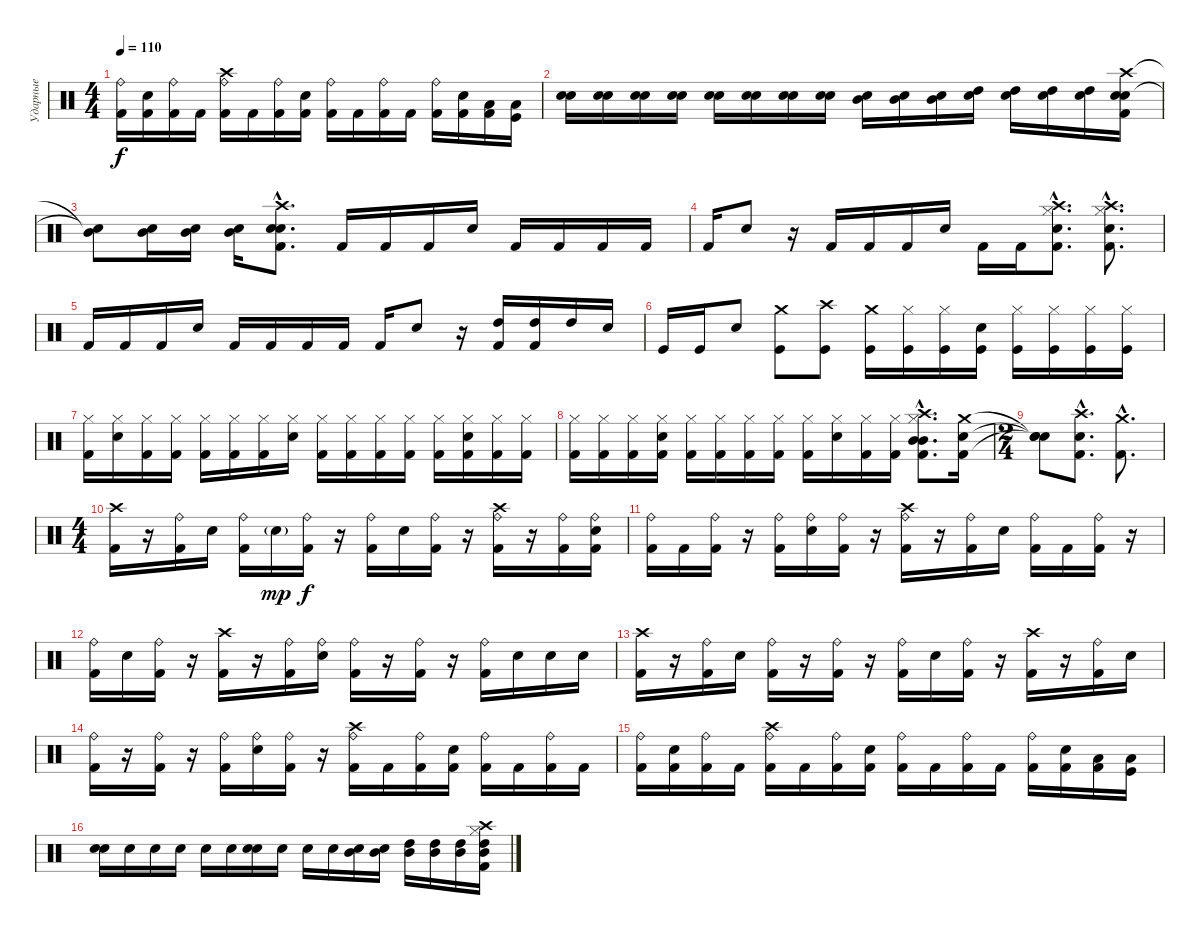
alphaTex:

\track ("Ударные" "Ударные") {instrument percussion}
\staff {score}
\articulation defaults
\ts (4 4)
\tempo 110
\clef neutral
\ks c
("Ride (bell)" "Kick (hit) 2").16{dy f} ("Electric Snare (hit)" "Kick (hit) 2").16 ("Ride (bell)" "Kick (hit) 2").16 "Kick (hit) 2".16 ("Crash high (hit)" "Ride (bell)" "Kick (hit) 2").16 "Kick (hit) 2".16 ("Ride (bell)" "Kick (hit) 2").16 ("Electric Snare (hit)" "Kick (hit) 2").16 ("Ride (bell)" "Kick (hit) 2").16 "Kick (hit) 2".16 ("Ride (bell)" "Kick (hit) 2").16 "Kick (hit) 2".16 ("Ride (bell)" "Kick (hit) 2").16 ("Electric Snare (hit)" "Kick (hit) 2").16 ("Low Tom (hit)" "Kick (hit) 2").16 ("Low Tom (hit)" "Kick (hit)").16 |
("Electric Snare (hit)" "Electric Snare (hit)").16 ("Electric Snare (hit)" "Electric Snare (hit)").16 ("Electric Snare (hit)" "Electric Snare (hit)").16 ("Electric Snare (hit)" "Electric Snare (hit)").16 ("Electric Snare (hit)" "Electric Snare (hit)").16 ("Electric Snare (hit)" "Electric Snare (hit)").16 ("Electric Snare (hit)" "Electric Snare (hit)").16 ("Electric Snare (hit)" "Electric Snare (hit)").16 ("Mid Tom (hit)" "Electric Snare (hit)").16 ("Mid Tom (hit)" "Electric Snare (hit)").16 ("Mid Tom (hit)" "Electric Snare (hit)").16 ("High Tom (hit)" "Electric Snare (hit)").16 ("High Tom (hit)" "Electric Snare (hit)").16 ("High Tom (hit)" "Electric Snare (hit)").16 ("High Tom (hit)" "Electric Snare (hit)").16 ("Crash high (hit)" "Electric Snare (hit)" "Electric Snare (hit)" "Kick (hit) 2").16 |
("Mid Tom (hit)"{t} "Electric Snare (hit)"{t}).8 ("Mid Tom (hit)" "Electric Snare (hit)").16 ("Mid Tom (hit)" "Electric Snare (hit)").16 ("Mid Tom (hit)" "Electric Snare (hit)").16 ("Crash high (hit)"{hac} "Electric Snare (hit)"{hac} "Electric Snare (hit)"{hac} "Kick (hit) 2"{hac}).8{d} "Kick (hit) 2".16 "Kick (hit) 2".16 "Kick (hit) 2".16 "Electric Snare (hit)".16 "Kick (hit) 2".16 "Kick (hit) 2".16 "Kick (hit) 2".16 "Kick (hit) 2".16 |
"Kick (hit) 2".16 "Electric Snare (hit)".8 r.16 "Kick (hit) 2".16 "Kick (hit) 2".16 "Kick (hit) 2".16 "Electric Snare (hit)".16 "Kick (hit) 2".16 "Kick (hit) 2".16 ("Crash high (hit)"{hac} "Hi-Hat (closed)"{hac} "Electric Snare (hit)"{hac} "Kick (hit) 2"{hac}).8{d} ("Crash high (hit)"{hac} "Hi-Hat (closed)"{hac} "Electric Snare (hit)"{hac} "Kick (hit) 2"{hac}).8{d} |
"Kick (hit) 2".16 "Kick (hit) 2".16 "Kick (hit) 2".16 "Electric Snare (hit)".16 "Kick (hit) 2".16 "Kick (hit) 2".16 "Kick (hit) 2".16 "Kick (hit) 2".16 "Kick (hit) 2".16 "Electric Snare (hit)".8 r.16 ("High Tom (hit)" "Kick (hit) 2").16 ("High Tom (hit)" "Kick (hit) 2").16 "High Tom (hit)".16 "Electric Snare (hit)".16 |
"Kick (hit)".16 "Kick (hit)".16 "Electric Snare (hit)".8 ("Crash medium (hit)" "Kick (hit)").8 ("Crash high (hit)" "Kick (hit)").8 ("Crash medium (hit)" "Kick (hit)").16 ("Hi-Hat (closed)" "Kick (hit)").16 ("Hi-Hat (closed)" "Kick (hit)").16 ("Electric Snare (hit)" "Kick (hit)").16 ("Hi-Hat (closed)" "Kick (hit)").16 ("Hi-Hat (closed)" "Kick (hit)").16 ("Hi-Hat (closed)" "Kick (hit)").16 ("Hi-Hat (closed)" "Kick (hit)").16 |
("Hi-Hat (closed)" "Kick (hit) 2").16 ("Hi-Hat (closed)" "Electric Snare (hit)").16 ("Hi-Hat (closed)" "Kick (hit) 2").16 ("Hi-Hat (closed)" "Kick (hit) 2").16 ("Hi-Hat (closed)" "Kick (hit) 2").16 ("Hi-Hat (closed)" "Kick (hit) 2").16 ("Hi-Hat (closed)" "Kick (hit) 2").16 ("Hi-Hat (closed)" "Electric Snare (hit)").16 ("Hi-Hat (closed)" "Kick (hit) 2").16 ("Hi-Hat (closed)" "Kick (hit) 2").16 ("Hi-Hat (closed)" "Kick (hit) 2").16 ("Hi-Hat (closed)" "Kick (hit) 2").16 ("Hi-Hat (closed)" "Kick (hit) 2").16 ("Hi-Hat (closed)" "Electric Snare (hit)" "Kick (hit) 2").16 ("Hi-Hat (closed)" "Kick (hit) 2").16 ("Hi-Hat (closed)" "Kick (hit) 2").16 |
("Hi-Hat (closed)" "Kick (hit) 2").16 ("Hi-Hat (closed)" "Kick (hit) 2").16 ("Hi-Hat (closed)" "Kick (hit) 2").16 ("Hi-Hat (closed)" "Electric Snare (hit)" "Kick (hit) 2").16 ("Hi-Hat (closed)" "Kick (hit) 2").16 ("Hi-Hat (closed)" "Kick (hit) 2").16 ("Hi-Hat (closed)" "Kick (hit) 2").16 ("Hi-Hat (closed)" "Kick (hit) 2").16 ("Hi-Hat (closed)" "Kick (hit) 2").16 ("Hi-Hat (closed)" "Electric Snare (hit)").16 ("Hi-Hat (closed)" "Kick (hit) 2").16 ("Hi-Hat (closed)" "Kick (hit) 2").16 ("Crash high (hit)"{hac} "Hi-Hat (closed)"{hac} "Mid Tom (hit)"{hac} "Mid Tom (hit)"{hac} "Kick (hit) 2"{hac}).8{d} ("Crash medium (hit)" "Electric Snare (hit)" "Kick (hit) 2").16 |
\ts (2 4)
("Snare (hit)"{t} "Snare (hit)"{t} "Snare (hit)"{t}).8 ("Crash high (hit)"{hac} "Electric Snare (hit)"{hac} "Kick (hit) 2"{hac}).8{d} ("Crash medium (hit)"{hac} "Kick (hit) 2"{hac}).8{d} |
\ts (4 4)
("Crash high (hit)" "Kick (hit) 2").16 r.16 ("Ride (bell)" "Kick (hit) 2").16 "Electric Snare (hit)".16 ("Ride (bell)" "Kick (hit) 2").16 "Electric Snare (hit)"{g}.16{dy mp} ("Ride (bell)" "Kick (hit) 2").16{dy f} r.16 ("Ride (bell)" "Kick (hit) 2").16 "Electric Snare (hit)".16 ("Ride (bell)" "Kick (hit) 2").16 r.16 ("Crash high (hit)" "Ride (bell)" "Kick (hit) 2").16 r.16 ("Ride (bell)" "Kick (hit) 2").16 ("Ride (bell)" "Electric Snare (hit)" "Kick (hit) 2").16 |
("Ride (bell)" "Kick (hit) 2").16 "Kick (hit) 2".16 ("Ride (bell)" "Kick (hit) 2").16 r.16 ("Ride (bell)" "Kick (hit) 2").16 ("Ride (bell)" "Electric Snare (hit)").16 ("Ride (bell)" "Kick (hit) 2").16 r.16 ("Crash high (hit)" "Ride (bell)" "Kick (hit) 2").16 r.16 ("Ride (bell)" "Kick (hit) 2").16 "Electric Snare (hit)".16 ("Ride (bell)" "Kick (hit) 2").16 "Kick (hit) 2".16 ("Ride (bell)" "Kick (hit) 2").16 r.16 |
("Ride (bell)" "Kick (hit) 2").16 "Electric Snare (hit)".16 ("Ride (bell)" "Kick (hit) 2").16 r.16 ("Crash high (hit)" "Kick (hit) 2").16 r.16 ("Ride (bell)" "Kick (hit) 2").16 ("Ride (bell)" "Electric Snare (hit)").16 ("Ride (bell)" "Kick (hit) 2").16 r.16 ("Ride (bell)" "Kick (hit) 2").16 r.16 ("Ride (bell)" "Kick (hit) 2").16 "Electric Snare (hit)".16 "Electric Snare (hit)".16 "Electric Snare (hit)".16 |
("Crash high (hit)" "Kick (hit) 2").16 r.16 ("Ride (bell)" "Kick (hit) 2").16 "Electric Snare (hit)".16 ("Ride (bell)" "Kick (hit) 2").16 r.16 ("Ride (bell)" "Kick (hit) 2").16 r.16 ("Ride (bell)" "Kick (hit) 2").16 "Electric Snare (hit)".16 ("Ride (bell)" "Kick (hit) 2").16 r.16 ("Crash high (hit)" "Kick (hit) 2").16 r.16 ("Ride (bell)" "Kick (hit) 2").16 "Electric Snare (hit)".16 |
("Ride (bell)" "Kick (hit) 2").16 r.16 ("Ride (bell)" "Kick (hit) 2").16 r.16 ("Ride (bell)" "Kick (hit) 2").16 ("Ride (bell)" "Electric Snare (hit)").16 ("Ride (bell)" "Kick (hit) 2").16 r.16 ("Crash high (hit)" "Ride (bell)" "Kick (hit) 2").16 "Kick (hit) 2".16 ("Ride (bell)" "Kick (hit) 2").16 ("Electric Snare (hit)" "Kick (hit) 2").16 ("Ride (bell)" "Kick (hit) 2").16 "Kick (hit) 2".16 ("Ride (bell)" "Kick (hit) 2").16 "Kick (hit) 2".16 |
("Ride (bell)" "Kick (hit) 2").16 ("Electric Snare (hit)" "Kick (hit) 2").16 ("Ride (bell)" "Kick (hit) 2").16 "Kick (hit) 2".16 ("Crash high (hit)" "Ride (bell)" "Kick (hit) 2").16 "Kick (hit) 2".16 ("Ride (bell)" "Kick (hit) 2").16 ("Electric Snare (hit)" "Kick (hit) 2").16 ("Ride (bell)" "Kick (hit) 2").16 "Kick (hit) 2".16 ("Ride (bell)" "Kick (hit) 2").16 "Kick (hit) 2".16 ("Ride (bell)" "Kick (hit) 2").16 ("Electric Snare (hit)" "Kick (hit) 2").16 ("Low Tom (hit)" "Kick (hit) 2").16 ("Low Tom (hit)" "Kick (hit)").16 |
("Electric Snare (hit)" "Electric Snare (hit)").16 "Electric Snare (hit)".16 "Electric Snare (hit)".16 "Electric Snare (hit)".16 "Electric Snare (hit)".16 "Electric Snare (hit)".16 ("Electric Snare (hit)" "Electric Snare (hit)").16 "Electric Snare (hit)".16 "Electric Snare (hit)".16 "Electric Snare (hit)".16 ("Mid Tom (hit)" "Electric Snare (hit)").16 ("Mid Tom (hit)" "Electric Snare (hit)").16 ("High Tom (hit)" "Mid Tom (hit)").16 ("High Tom (hit)" "Mid Tom (hit)").16 ("High Tom (hit)" "Mid Tom (hit)").16 ("Crash high (hit)" "Hi-Hat (closed)" "High Tom (hit)" "Mid Tom (hit)" "Kick (hit) 2").16
